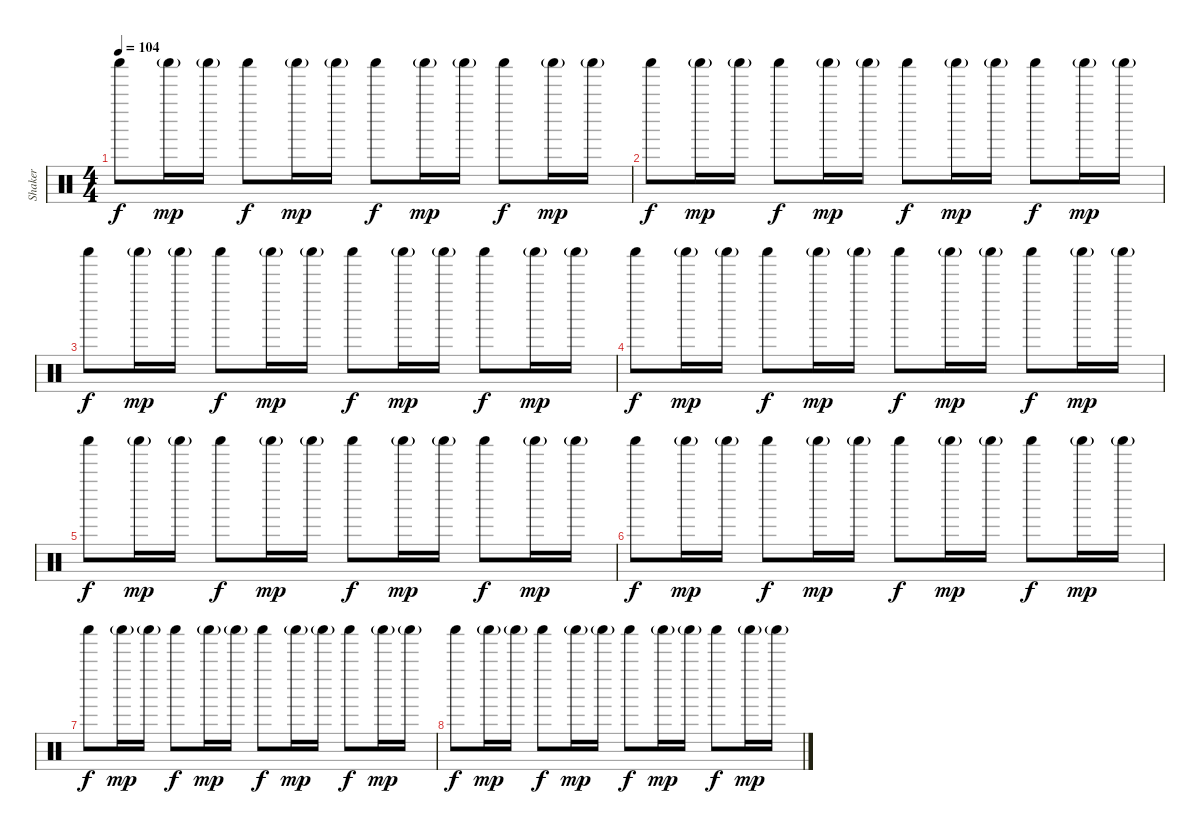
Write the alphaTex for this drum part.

\track ("Shaker" "Shaker") {instrument percussion}
\staff {score}
\articulation defaults
\ts (4 4)
\tempo 104
\clef neutral
\ks c "Shaker (hit)".8{dy f} "Shaker (hit)"{g}.16{dy mp} "Shaker (hit)"{g}.16 "Shaker (hit)".8{dy f} "Shaker (hit)"{g}.16{dy mp} "Shaker (hit)"{g}.16 "Shaker (hit)".8{dy f} "Shaker (hit)"{g}.16{dy mp} "Shaker (hit)"{g}.16 "Shaker (hit)".8{dy f} "Shaker (hit)"{g}.16{dy mp} "Shaker (hit)"{g}.16
|
"Shaker (hit)".8{dy f} "Shaker (hit)"{g}.16{dy mp} "Shaker (hit)"{g}.16 "Shaker (hit)".8{dy f} "Shaker (hit)"{g}.16{dy mp} "Shaker (hit)"{g}.16 "Shaker (hit)".8{dy f} "Shaker (hit)"{g}.16{dy mp} "Shaker (hit)"{g}.16 "Shaker (hit)".8{dy f} "Shaker (hit)"{g}.16{dy mp} "Shaker (hit)"{g}.16 |
"Shaker (hit)".8{dy f} "Shaker (hit)"{g}.16{dy mp} "Shaker (hit)"{g}.16 "Shaker (hit)".8{dy f} "Shaker (hit)"{g}.16{dy mp} "Shaker (hit)"{g}.16 "Shaker (hit)".8{dy f} "Shaker (hit)"{g}.16{dy mp} "Shaker (hit)"{g}.16 "Shaker (hit)".8{dy f} "Shaker (hit)"{g}.16{dy mp} "Shaker (hit)"{g}.16 |
"Shaker (hit)".8{dy f} "Shaker (hit)"{g}.16{dy mp} "Shaker (hit)"{g}.16 "Shaker (hit)".8{dy f} "Shaker (hit)"{g}.16{dy mp} "Shaker (hit)"{g}.16 "Shaker (hit)".8{dy f} "Shaker (hit)"{g}.16{dy mp} "Shaker (hit)"{g}.16 "Shaker (hit)".8{dy f} "Shaker (hit)"{g}.16{dy mp} "Shaker (hit)"{g}.16 |
"Shaker (hit)".8{dy f} "Shaker (hit)"{g}.16{dy mp} "Shaker (hit)"{g}.16 "Shaker (hit)".8{dy f} "Shaker (hit)"{g}.16{dy mp} "Shaker (hit)"{g}.16 "Shaker (hit)".8{dy f} "Shaker (hit)"{g}.16{dy mp} "Shaker (hit)"{g}.16 "Shaker (hit)".8{dy f} "Shaker (hit)"{g}.16{dy mp} "Shaker (hit)"{g}.16 |
"Shaker (hit)".8{dy f} "Shaker (hit)"{g}.16{dy mp} "Shaker (hit)"{g}.16 "Shaker (hit)".8{dy f} "Shaker (hit)"{g}.16{dy mp} "Shaker (hit)"{g}.16 "Shaker (hit)".8{dy f} "Shaker (hit)"{g}.16{dy mp} "Shaker (hit)"{g}.16 "Shaker (hit)".8{dy f} "Shaker (hit)"{g}.16{dy mp} "Shaker (hit)"{g}.16 |
"Shaker (hit)".8{dy f} "Shaker (hit)"{g}.16{dy mp} "Shaker (hit)"{g}.16 "Shaker (hit)".8{dy f} "Shaker (hit)"{g}.16{dy mp} "Shaker (hit)"{g}.16 "Shaker (hit)".8{dy f} "Shaker (hit)"{g}.16{dy mp} "Shaker (hit)"{g}.16 "Shaker (hit)".8{dy f} "Shaker (hit)"{g}.16{dy mp} "Shaker (hit)"{g}.16 |
"Shaker (hit)".8{dy f} "Shaker (hit)"{g}.16{dy mp} "Shaker (hit)"{g}.16 "Shaker (hit)".8{dy f} "Shaker (hit)"{g}.16{dy mp} "Shaker (hit)"{g}.16 "Shaker (hit)".8{dy f} "Shaker (hit)"{g}.16{dy mp} "Shaker (hit)"{g}.16 "Shaker (hit)".8{dy f} "Shaker (hit)"{g}.16{dy mp} "Shaker (hit)"{g}.16
